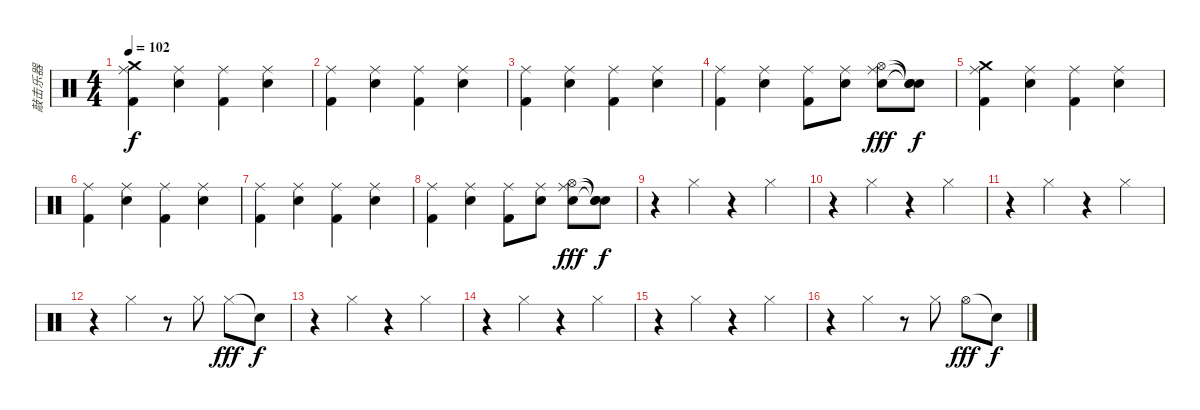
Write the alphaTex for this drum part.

\track ("敲击乐器" "敲击乐器") {instrument percussion}
\staff {score}
\articulation defaults
\ts (4 4)
\tempo 102
\clef neutral
\ks c
("Crash medium (hit)" "Ride (middle)" "Kick (hit) 2").4{dy f} ("Ride (middle)" "Electric Snare (hit)").4 ("Ride (middle)" "Kick (hit) 2").4 ("Ride (middle)" "Electric Snare (hit)").4 |
("Ride (middle)" "Kick (hit) 2").4 ("Ride (middle)" "Electric Snare (hit)").4 ("Ride (middle)" "Kick (hit) 2").4 ("Ride (middle)" "Electric Snare (hit)").4 |
("Ride (middle)" "Kick (hit) 2").4 ("Ride (middle)" "Electric Snare (hit)").4 ("Ride (middle)" "Kick (hit) 2").4 ("Ride (middle)" "Electric Snare (hit)").4 |
("Ride (middle)" "Kick (hit) 2").4 ("Ride (middle)" "Electric Snare (hit)").4 ("Ride (middle)" "Kick (hit) 2").8 ("Ride (middle)" "Electric Snare (hit)").8 ("Ride (middle)" "Electric Snare (hit)" "Hi-Hat (open)").8{dy fff} ("Snare (hit)"{t} "Snare (hit)"{t} "Snare (hit)"{t}).8{dy f} |
("Crash medium (hit)" "Ride (middle)" "Kick (hit) 2").4 ("Ride (middle)" "Electric Snare (hit)").4 ("Ride (middle)" "Kick (hit) 2").4 ("Ride (middle)" "Electric Snare (hit)").4 |
("Ride (middle)" "Kick (hit) 2").4 ("Ride (middle)" "Electric Snare (hit)").4 ("Ride (middle)" "Kick (hit) 2").4 ("Ride (middle)" "Electric Snare (hit)").4 |
("Ride (middle)" "Kick (hit) 2").4 ("Ride (middle)" "Electric Snare (hit)").4 ("Ride (middle)" "Kick (hit) 2").4 ("Ride (middle)" "Electric Snare (hit)").4 |
("Ride (middle)" "Kick (hit) 2").4 ("Ride (middle)" "Electric Snare (hit)").4 ("Ride (middle)" "Kick (hit) 2").8 ("Ride (middle)" "Electric Snare (hit)").8 ("Ride (middle)" "Electric Snare (hit)" "Hi-Hat (open)").8{dy fff} ("Snare (hit)"{t} "Snare (hit)"{t} "Snare (hit)"{t}).8{dy f} |
r.4 "Hi-Hat (closed)".4 r.4 "Hi-Hat (closed)".4 |
r.4 "Hi-Hat (closed)".4 r.4 "Hi-Hat (closed)".4 |
r.4 "Hi-Hat (closed)".4 r.4 "Hi-Hat (closed)".4 |
r.4 "Hi-Hat (closed)".4 r.8 "Hi-Hat (closed)".8 "Hi-Hat (closed)".8{dy fff} "Snare (hit)"{t}.8{dy f} |
r.4 "Hi-Hat (closed)".4 r.4 "Hi-Hat (closed)".4 |
r.4 "Hi-Hat (closed)".4 r.4 "Hi-Hat (closed)".4 |
r.4 "Hi-Hat (closed)".4 r.4 "Hi-Hat (closed)".4 |
r.4 "Hi-Hat (closed)".4 r.8 "Hi-Hat (closed)".8 "Hi-Hat (open)".8{dy fff} "Snare (hit)"{t}.8{dy f}
